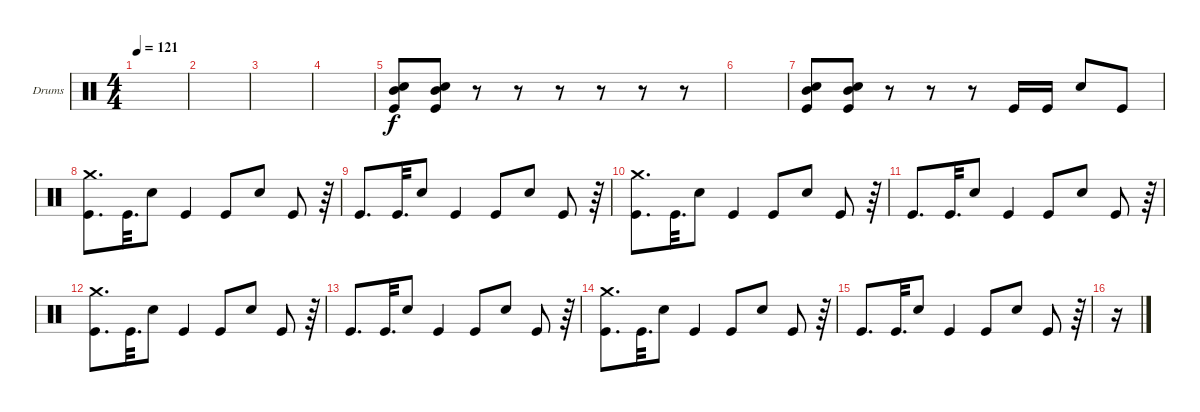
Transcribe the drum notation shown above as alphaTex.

\defaultSystemsLayout 4
\bracketExtendMode groupsimilarinstruments
\firstSystemTrackNameOrientation horizontal
\otherSystemsTrackNameOrientation horizontal
\track ("EV2" "Drums") {instrument percussion}
\staff {score}
\articulation defaults
\ts (4 4)
\tempo 121
\clef neutral
\ks c
|
|
|
|
("Mid Tom (hit)" "Snare (hit) 2" "Kick (hit)").8 ("Mid Tom (hit)" "Snare (hit) 2" "Kick (hit)").8 r.8 r.8 r.8 r.8 r.8 r.8 |
|
("Mid Tom (hit)" "Snare (hit) 2" "Kick (hit)").8 ("Mid Tom (hit)" "Snare (hit) 2" "Kick (hit)").8 r.8 r.8 r.8 "Kick (hit)".16 "Kick (hit)".16 "Snare (hit) 2".8 "Kick (hit)".8 |
("Crash medium (hit)" "Kick (hit)").8{d} "Kick (hit)".32{d} "Snare (hit) 2".8 "Kick (hit)".4 "Kick (hit)".8 "Snare (hit) 2".8 "Kick (hit)".8 r.64 |
"Kick (hit)".8{d} "Kick (hit)".32{d} "Snare (hit) 2".8 "Kick (hit)".4 "Kick (hit)".8 "Snare (hit) 2".8 "Kick (hit)".8 r.64 |
("Crash medium (hit)" "Kick (hit)").8{d} "Kick (hit)".32{d} "Snare (hit) 2".8 "Kick (hit)".4 "Kick (hit)".8 "Snare (hit) 2".8 "Kick (hit)".8 r.64 |
"Kick (hit)".8{d} "Kick (hit)".32{d} "Snare (hit) 2".8 "Kick (hit)".4 "Kick (hit)".8 "Snare (hit) 2".8 "Kick (hit)".8 r.64 |
("Crash medium (hit)" "Kick (hit)").8{d} "Kick (hit)".32{d} "Snare (hit) 2".8 "Kick (hit)".4 "Kick (hit)".8 "Snare (hit) 2".8 "Kick (hit)".8 r.64 |
"Kick (hit)".8{d} "Kick (hit)".32{d} "Snare (hit) 2".8 "Kick (hit)".4 "Kick (hit)".8 "Snare (hit) 2".8 "Kick (hit)".8 r.64 |
("Crash medium (hit)" "Kick (hit)").8{d} "Kick (hit)".32{d} "Snare (hit) 2".8 "Kick (hit)".4 "Kick (hit)".8 "Snare (hit) 2".8 "Kick (hit)".8 r.64 |
"Kick (hit)".8{d} "Kick (hit)".32{d} "Snare (hit) 2".8 "Kick (hit)".4 "Kick (hit)".8 "Snare (hit) 2".8 "Kick (hit)".8 r.64 |
r.16
